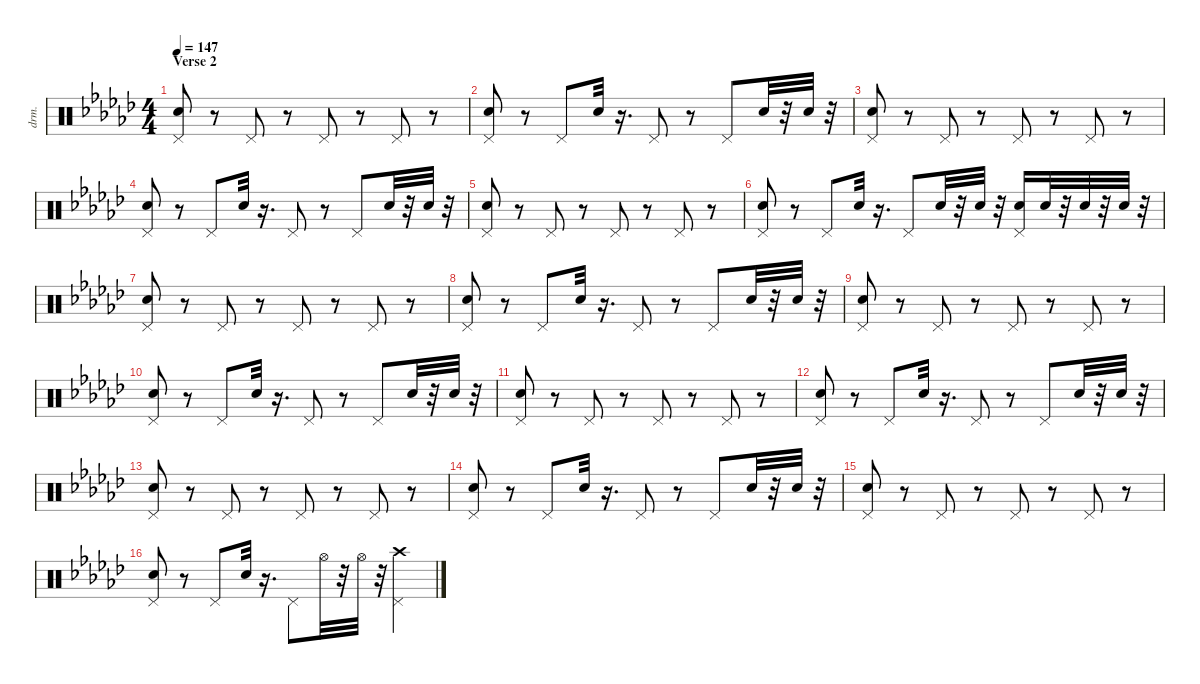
\defaultSystemsLayout 4
\hideDynamics
\bracketExtendMode nobrackets
\otherSystemsTrackNameOrientation horizontal
\track ("Drums" "drm.") {instrument percussion}
\staff {score}
\articulation defaults
\ts (4 4)
\section ("" "Verse 2")
\tempo 147
\clef neutral
\ks ebminor
("Pedal Hi-Hat (hit)"{acc forcenatural} "Snare (hit) 2"{acc forcenatural}).8{dy f beam Up} r.8{beam Up} "Pedal Hi-Hat (hit)"{acc forcenatural}.8{beam Up} r.8{beam Up} "Pedal Hi-Hat (hit)"{acc forcenatural}.8{beam Up} r.8{beam Up} "Pedal Hi-Hat (hit)"{acc forcenatural}.8{beam Up} r.8{beam Up} |
("Pedal Hi-Hat (hit)"{acc forcenatural} "Snare (hit) 2"{acc forcenatural}).8{beam Up} r.8{beam Up} "Pedal Hi-Hat (hit)"{acc forcenatural}.8{beam Up} "Snare (hit) 2"{acc forcenatural}.32{beam Up} r.16{d beam Up} "Pedal Hi-Hat (hit)"{acc forcenatural}.8{beam Up} r.8{beam Up} "Pedal Hi-Hat (hit)"{acc forcenatural}.8{beam Up} "Snare (hit) 2"{acc forcenatural}.32{beam Up} r.32{beam Up} "Snare (hit) 2"{acc forcenatural}.32{dy ff beam Up} r.32{beam Up} |
("Pedal Hi-Hat (hit)"{acc forcenatural} "Snare (hit) 2"{acc forcenatural}).8{dy f beam Up} r.8{beam Up} "Pedal Hi-Hat (hit)"{acc forcenatural}.8{beam Up} r.8{beam Up} "Pedal Hi-Hat (hit)"{acc forcenatural}.8{beam Up} r.8{beam Up} "Pedal Hi-Hat (hit)"{acc forcenatural}.8{beam Up} r.8{beam Up} |
("Pedal Hi-Hat (hit)"{acc forcenatural} "Snare (hit) 2"{acc forcenatural}).8{beam Up} r.8{beam Up} "Pedal Hi-Hat (hit)"{acc forcenatural}.8{beam Up} "Snare (hit) 2"{acc forcenatural}.32{beam Up} r.16{d beam Up} "Pedal Hi-Hat (hit)"{acc forcenatural}.8{beam Up} r.8{beam Up} "Pedal Hi-Hat (hit)"{acc forcenatural}.8{beam Up} "Snare (hit) 2"{acc forcenatural}.32{beam Up} r.32{beam Up} "Snare (hit) 2"{acc forcenatural}.32{dy ff beam Up} r.32{beam Up} |
("Pedal Hi-Hat (hit)"{acc forcenatural} "Snare (hit) 2"{acc forcenatural}).8{dy f beam Up} r.8{beam Up} "Pedal Hi-Hat (hit)"{acc forcenatural}.8{beam Up} r.8{beam Up} "Pedal Hi-Hat (hit)"{acc forcenatural}.8{beam Up} r.8{beam Up} "Pedal Hi-Hat (hit)"{acc forcenatural}.8{beam Up} r.8{beam Up} |
("Pedal Hi-Hat (hit)"{acc forcenatural} "Snare (hit) 2"{acc forcenatural}).8{beam Up} r.8{beam Up} "Pedal Hi-Hat (hit)"{acc forcenatural}.8{beam Up} "Snare (hit) 2"{acc forcenatural}.32{beam Up} r.16{d beam Up} "Pedal Hi-Hat (hit)"{acc forcenatural}.8{beam Up} "Snare (hit) 2"{acc forcenatural}.32{dy p beam Up} r.32{beam Up} "Snare (hit) 2"{acc forcenatural}.32{dy mp beam Up} r.32{beam Up} ("Pedal Hi-Hat (hit)"{acc forcenatural} "Snare (hit) 2"{acc forcenatural}).16{dy f beam Up} "Snare (hit) 2"{acc forcenatural}.32{dy mf beam Up} r.32{beam Up} "Snare (hit) 2"{acc forcenatural}.32{dy f beam Up} r.32{beam Up} "Snare (hit) 2"{acc forcenatural}.32{dy ff beam Up} r.32{beam Up} |
("Pedal Hi-Hat (hit)"{acc forcenatural} "Snare (hit) 2"{acc forcenatural}).8{dy f beam Up} r.8{beam Up} "Pedal Hi-Hat (hit)"{acc forcenatural}.8{beam Up} r.8{beam Up} "Pedal Hi-Hat (hit)"{acc forcenatural}.8{beam Up} r.8{beam Up} "Pedal Hi-Hat (hit)"{acc forcenatural}.8{beam Up} r.8{beam Up} |
("Pedal Hi-Hat (hit)"{acc forcenatural} "Snare (hit) 2"{acc forcenatural}).8{beam Up} r.8{beam Up} "Pedal Hi-Hat (hit)"{acc forcenatural}.8{beam Up} "Snare (hit) 2"{acc forcenatural}.32{beam Up} r.16{d beam Up} "Pedal Hi-Hat (hit)"{acc forcenatural}.8{beam Up} r.8{beam Up} "Pedal Hi-Hat (hit)"{acc forcenatural}.8{beam Up} "Snare (hit) 2"{acc forcenatural}.32{beam Up} r.32{beam Up} "Snare (hit) 2"{acc forcenatural}.32{dy ff beam Up} r.32{beam Up} |
("Pedal Hi-Hat (hit)"{acc forcenatural} "Snare (hit) 2"{acc forcenatural}).8{dy f beam Up} r.8{beam Up} "Pedal Hi-Hat (hit)"{acc forcenatural}.8{beam Up} r.8{beam Up} "Pedal Hi-Hat (hit)"{acc forcenatural}.8{beam Up} r.8{beam Up} "Pedal Hi-Hat (hit)"{acc forcenatural}.8{beam Up} r.8{beam Up} |
("Pedal Hi-Hat (hit)"{acc forcenatural} "Snare (hit) 2"{acc forcenatural}).8{beam Up} r.8{beam Up} "Pedal Hi-Hat (hit)"{acc forcenatural}.8{beam Up} "Snare (hit) 2"{acc forcenatural}.32{beam Up} r.16{d beam Up} "Pedal Hi-Hat (hit)"{acc forcenatural}.8{beam Up} r.8{beam Up} "Pedal Hi-Hat (hit)"{acc forcenatural}.8{beam Up} "Snare (hit) 2"{acc forcenatural}.32{beam Up} r.32{beam Up} "Snare (hit) 2"{acc forcenatural}.32{dy ff beam Up} r.32{beam Up} |
("Pedal Hi-Hat (hit)"{acc forcenatural} "Snare (hit) 2"{acc forcenatural}).8{dy f beam Up} r.8{beam Up} "Pedal Hi-Hat (hit)"{acc forcenatural}.8{beam Up} r.8{beam Up} "Pedal Hi-Hat (hit)"{acc forcenatural}.8{beam Up} r.8{beam Up} "Pedal Hi-Hat (hit)"{acc forcenatural}.8{beam Up} r.8{beam Up} |
("Pedal Hi-Hat (hit)"{acc forcenatural} "Snare (hit) 2"{acc forcenatural}).8{beam Up} r.8{beam Up} "Pedal Hi-Hat (hit)"{acc forcenatural}.8{beam Up} "Snare (hit) 2"{acc forcenatural}.32{beam Up} r.16{d beam Up} "Pedal Hi-Hat (hit)"{acc forcenatural}.8{beam Up} r.8{beam Up} "Pedal Hi-Hat (hit)"{acc forcenatural}.8{beam Up} "Snare (hit) 2"{acc forcenatural}.32{beam Up} r.32{beam Up} "Snare (hit) 2"{acc forcenatural}.32{dy ff beam Up} r.32{beam Up} |
("Pedal Hi-Hat (hit)"{acc forcenatural} "Snare (hit) 2"{acc forcenatural}).8{dy f beam Up} r.8{beam Up} "Pedal Hi-Hat (hit)"{acc forcenatural}.8{beam Up} r.8{beam Up} "Pedal Hi-Hat (hit)"{acc forcenatural}.8{beam Up} r.8{beam Up} "Pedal Hi-Hat (hit)"{acc forcenatural}.8{beam Up} r.8{beam Up} |
("Pedal Hi-Hat (hit)"{acc forcenatural} "Snare (hit) 2"{acc forcenatural}).8{beam Up} r.8{beam Up} "Pedal Hi-Hat (hit)"{acc forcenatural}.8{beam Up} "Snare (hit) 2"{acc forcenatural}.32{beam Up} r.16{d beam Up} "Pedal Hi-Hat (hit)"{acc forcenatural}.8{beam Up} r.8{beam Up} "Pedal Hi-Hat (hit)"{acc forcenatural}.8{beam Up} "Snare (hit) 2"{acc forcenatural}.32{beam Up} r.32{beam Up} "Snare (hit) 2"{acc forcenatural}.32{dy ff beam Up} r.32{beam Up} |
("Pedal Hi-Hat (hit)"{acc forcenatural} "Snare (hit) 2"{acc forcenatural}).8{dy f beam Up} r.8{beam Up} "Pedal Hi-Hat (hit)"{acc forcenatural}.8{beam Up} r.8{beam Up} "Pedal Hi-Hat (hit)"{acc forcenatural}.8{beam Up} r.8{beam Up} "Pedal Hi-Hat (hit)"{acc forcenatural}.8{beam Up} r.8{beam Up} |
("Pedal Hi-Hat (hit)"{acc forcenatural} "Snare (hit) 2"{acc forcenatural}).8{beam Up} r.8{beam Up} "Pedal Hi-Hat (hit)"{acc forcenatural}.8{beam Up} "Snare (hit) 2"{acc forcenatural}.32{beam Up} r.16{d beam Up} "Pedal Hi-Hat (hit)"{acc forcenatural}.8{beam Down} "Hi-Hat (open)"{acc forcenatural}.32{beam Down} r.32{beam Down} "Hi-Hat (open)"{acc forcenatural}.32{beam Down} r.32{beam Down} ("Pedal Hi-Hat (hit)"{acc forcenatural} "Crash high (hit)"{acc forcenatural}).4{beam Down}
